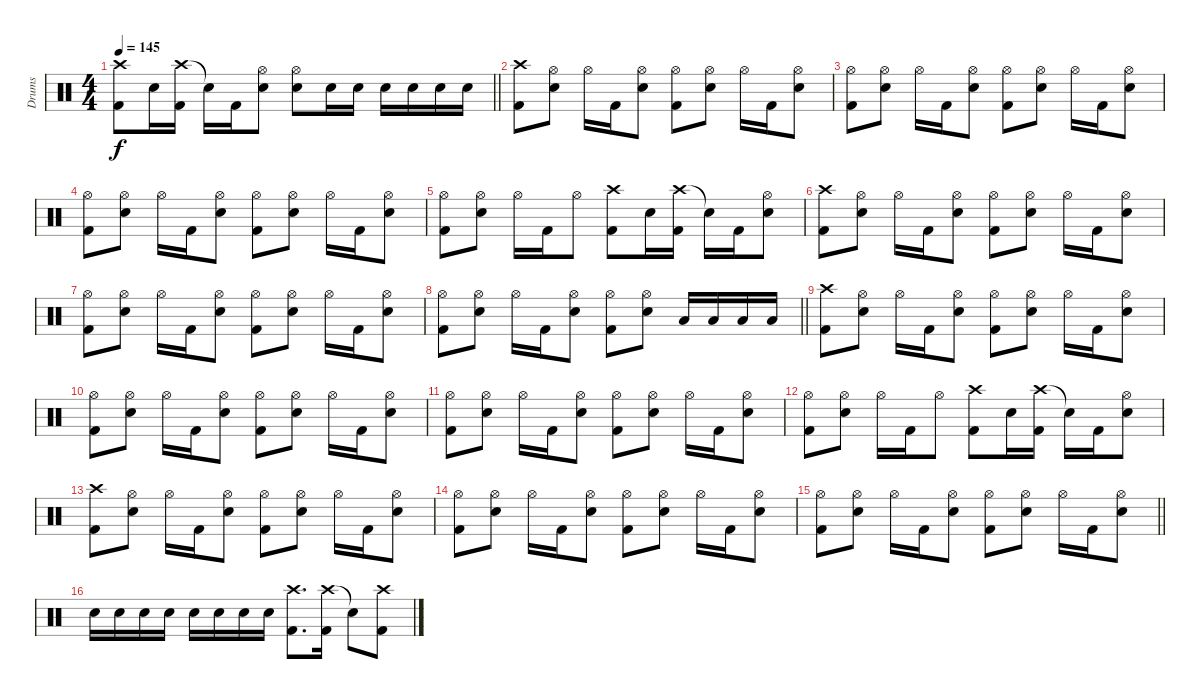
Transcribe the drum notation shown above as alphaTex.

\track ("Drums" "Drums") {instrument percussion}
\staff {score}
\articulation defaults
\ts (4 4)
\tempo 145
\clef neutral
\barLineRight lightlight
\ks c
("Crash high (hit)" "Kick (hit) 2").8{dy f} "Snare (hit) 2".16 ("Crash high (hit)" "Kick (hit) 2").16 "Snare (hit)"{t}.16 "Kick (hit) 2".16 ("Hi-Hat (open)" "Snare (hit) 2").8 ("Hi-Hat (open)" "Snare (hit) 2").8 "Snare (hit) 2".16 "Snare (hit) 2".16 "Snare (hit) 2".16 "Snare (hit) 2".16 "Snare (hit) 2".16 "Snare (hit) 2".16 |
("Crash high (hit)" "Kick (hit) 2").8 ("Hi-Hat (open)" "Snare (hit) 2").8 "Hi-Hat (open)".16 "Kick (hit) 2".16 ("Hi-Hat (open)" "Snare (hit) 2").8 ("Hi-Hat (open)" "Kick (hit) 2").8 ("Hi-Hat (open)" "Snare (hit) 2").8 "Hi-Hat (open)".16 "Kick (hit) 2".16 ("Hi-Hat (open)" "Snare (hit) 2").8 |
("Hi-Hat (open)" "Kick (hit) 2").8 ("Hi-Hat (open)" "Snare (hit) 2").8 "Hi-Hat (open)".16 "Kick (hit) 2".16 ("Hi-Hat (open)" "Snare (hit) 2").8 ("Hi-Hat (open)" "Kick (hit) 2").8 ("Hi-Hat (open)" "Snare (hit) 2").8 "Hi-Hat (open)".16 "Kick (hit) 2".16 ("Hi-Hat (open)" "Snare (hit) 2").8 |
("Hi-Hat (open)" "Kick (hit) 2").8 ("Hi-Hat (open)" "Snare (hit) 2").8 "Hi-Hat (open)".16 "Kick (hit) 2".16 ("Hi-Hat (open)" "Snare (hit) 2").8 ("Hi-Hat (open)" "Kick (hit) 2").8 ("Hi-Hat (open)" "Snare (hit) 2").8 "Hi-Hat (open)".16 "Kick (hit) 2".16 ("Hi-Hat (open)" "Snare (hit) 2").8 |
("Hi-Hat (open)" "Kick (hit) 2").8 ("Hi-Hat (open)" "Snare (hit) 2").8 "Hi-Hat (open)".16 "Kick (hit) 2".16 "Hi-Hat (open)".8 ("Crash high (hit)" "Kick (hit) 2").8 "Snare (hit) 2".16 ("Crash high (hit)" "Kick (hit) 2").16 "Snare (hit)"{t}.16 "Kick (hit) 2".16 ("Hi-Hat (open)" "Snare (hit) 2").8 |
("Crash high (hit)" "Kick (hit) 2").8 ("Hi-Hat (open)" "Snare (hit) 2").8 "Hi-Hat (open)".16 "Kick (hit) 2".16 ("Hi-Hat (open)" "Snare (hit) 2").8 ("Hi-Hat (open)" "Kick (hit) 2").8 ("Hi-Hat (open)" "Snare (hit) 2").8 "Hi-Hat (open)".16 "Kick (hit) 2".16 ("Hi-Hat (open)" "Snare (hit) 2").8 |
("Hi-Hat (open)" "Kick (hit) 2").8 ("Hi-Hat (open)" "Snare (hit) 2").8 "Hi-Hat (open)".16 "Kick (hit) 2".16 ("Hi-Hat (open)" "Snare (hit) 2").8 ("Hi-Hat (open)" "Kick (hit) 2").8 ("Hi-Hat (open)" "Snare (hit) 2").8 "Hi-Hat (open)".16 "Kick (hit) 2".16 ("Hi-Hat (open)" "Snare (hit) 2").8 |
\barLineRight lightlight
("Hi-Hat (open)" "Kick (hit) 2").8 ("Hi-Hat (open)" "Snare (hit) 2").8 "Hi-Hat (open)".16 "Kick (hit) 2".16 ("Hi-Hat (open)" "Snare (hit) 2").8 ("Hi-Hat (open)" "Kick (hit) 2").8 ("Hi-Hat (open)" "Snare (hit) 2").8 "Low Tom (hit)".16 "Low Tom (hit)".16 "Low Floor Tom (hit)".16 "Low Floor Tom (hit)".16 |
("Crash high (hit)" "Kick (hit) 2").8 ("Hi-Hat (open)" "Snare (hit) 2").8 "Hi-Hat (open)".16 "Kick (hit) 2".16 ("Hi-Hat (open)" "Snare (hit) 2").8 ("Hi-Hat (open)" "Kick (hit) 2").8 ("Hi-Hat (open)" "Snare (hit) 2").8 "Hi-Hat (open)".16 "Kick (hit) 2".16 ("Hi-Hat (open)" "Snare (hit) 2").8 |
("Hi-Hat (open)" "Kick (hit) 2").8 ("Hi-Hat (open)" "Snare (hit) 2").8 "Hi-Hat (open)".16 "Kick (hit) 2".16 ("Hi-Hat (open)" "Snare (hit) 2").8 ("Hi-Hat (open)" "Kick (hit) 2").8 ("Hi-Hat (open)" "Snare (hit) 2").8 "Hi-Hat (open)".16 "Kick (hit) 2".16 ("Hi-Hat (open)" "Snare (hit) 2").8 |
("Hi-Hat (open)" "Kick (hit) 2").8 ("Hi-Hat (open)" "Snare (hit) 2").8 "Hi-Hat (open)".16 "Kick (hit) 2".16 ("Hi-Hat (open)" "Snare (hit) 2").8 ("Hi-Hat (open)" "Kick (hit) 2").8 ("Hi-Hat (open)" "Snare (hit) 2").8 "Hi-Hat (open)".16 "Kick (hit) 2".16 ("Hi-Hat (open)" "Snare (hit) 2").8 |
("Hi-Hat (open)" "Kick (hit) 2").8 ("Hi-Hat (open)" "Snare (hit) 2").8 "Hi-Hat (open)".16 "Kick (hit) 2".16 "Hi-Hat (open)".8 ("Crash high (hit)" "Kick (hit) 2").8 "Snare (hit) 2".16 ("Crash high (hit)" "Kick (hit) 2").16 "Snare (hit)"{t}.16 "Kick (hit) 2".16 ("Hi-Hat (open)" "Snare (hit) 2").8 |
("Crash high (hit)" "Kick (hit) 2").8 ("Hi-Hat (open)" "Snare (hit) 2").8 "Hi-Hat (open)".16 "Kick (hit) 2".16 ("Hi-Hat (open)" "Snare (hit) 2").8 ("Hi-Hat (open)" "Kick (hit) 2").8 ("Hi-Hat (open)" "Snare (hit) 2").8 "Hi-Hat (open)".16 "Kick (hit) 2".16 ("Hi-Hat (open)" "Snare (hit) 2").8 |
("Hi-Hat (open)" "Kick (hit) 2").8 ("Hi-Hat (open)" "Snare (hit) 2").8 "Hi-Hat (open)".16 "Kick (hit) 2".16 ("Hi-Hat (open)" "Snare (hit) 2").8 ("Hi-Hat (open)" "Kick (hit) 2").8 ("Hi-Hat (open)" "Snare (hit) 2").8 "Hi-Hat (open)".16 "Kick (hit) 2".16 ("Hi-Hat (open)" "Snare (hit) 2").8 |
\barLineRight lightlight
("Hi-Hat (open)" "Kick (hit) 2").8 ("Hi-Hat (open)" "Snare (hit) 2").8 "Hi-Hat (open)".16 "Kick (hit) 2".16 ("Hi-Hat (open)" "Snare (hit) 2").8 ("Hi-Hat (open)" "Kick (hit) 2").8 ("Hi-Hat (open)" "Snare (hit) 2").8 "Hi-Hat (open)".16 "Kick (hit) 2".16 ("Hi-Hat (open)" "Snare (hit) 2").8 |
"Snare (hit) 2".16 "Snare (hit) 2".16 "Snare (hit) 2".16 "Snare (hit) 2".16 "Snare (hit) 2".16 "Snare (hit) 2".16 "Snare (hit) 2".16 "Snare (hit) 2".16 ("Crash high (hit)" "Kick (hit) 2").8{d} ("Crash high (hit)" "Kick (hit) 2").16 "Snare (hit)"{t}.8 ("Crash high (hit)" "Kick (hit) 2").8
